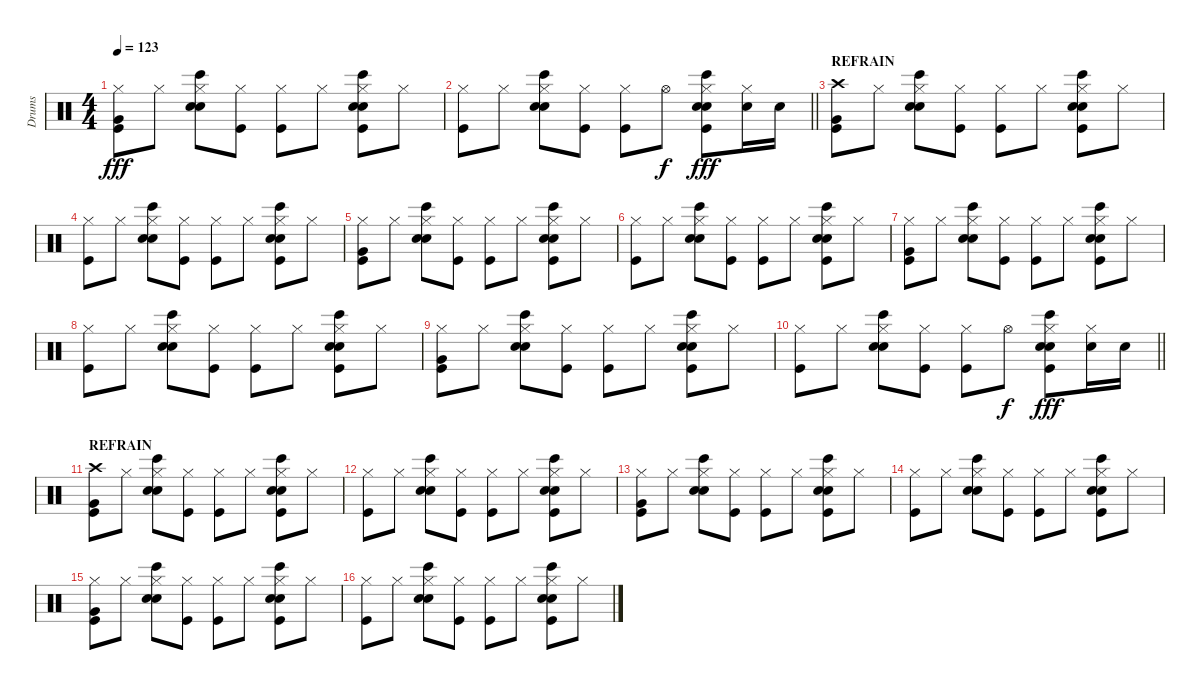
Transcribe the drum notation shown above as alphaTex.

\track ("Drums" "Drums") {instrument percussion}
\staff {score}
\articulation defaults
\ts (4 4)
\tempo 123
\clef neutral
\ks c
("Kick (hit)" "Hi-Hat (closed)" "Very Low Tom (hit)").8{dy fff} "Hi-Hat (closed)".8 ("Hi-Hat (closed)" "Bongo High (hit)" "Hand Clap (hit)" "Electric Snare (hit)").8 ("Kick (hit)" "Hi-Hat (closed)").8 ("Hi-Hat (closed)" "Kick (hit)").8 "Hi-Hat (closed)".8 ("Hi-Hat (closed)" "Kick (hit)" "Electric Snare (hit)" "Hand Clap (hit)" "Bongo High (hit)").8 "Hi-Hat (closed)".8 |
\barLineRight lightlight
("Hi-Hat (closed)" "Kick (hit)").8 "Hi-Hat (closed)".8 ("Hi-Hat (closed)" "Electric Snare (hit)" "Bongo High (hit)" "Hand Clap (hit)").8 ("Hi-Hat (closed)" "Kick (hit)").8 ("Hi-Hat (closed)" "Kick (hit)").8 "Hi-Hat (open)".8{dy f} ("Hi-Hat (closed)" "Bongo High (hit)" "Electric Snare (hit)" "Kick (hit)" "Hand Clap (hit)").8{dy fff} ("Electric Snare (hit)" "Hi-Hat (closed)").16 "Electric Snare (hit)".16 |
\section ("" "REFRAIN")
("Kick (hit)" "Crash high (hit)" "Very Low Tom (hit)").8 "Hi-Hat (closed)".8 ("Hi-Hat (closed)" "Bongo High (hit)" "Hand Clap (hit)" "Electric Snare (hit)").8 ("Kick (hit)" "Hi-Hat (closed)").8 ("Hi-Hat (closed)" "Kick (hit)").8 "Hi-Hat (closed)".8 ("Hi-Hat (closed)" "Kick (hit)" "Electric Snare (hit)" "Hand Clap (hit)" "Bongo High (hit)").8 "Hi-Hat (closed)".8 |
("Hi-Hat (closed)" "Kick (hit)").8 "Hi-Hat (closed)".8 ("Hi-Hat (closed)" "Electric Snare (hit)" "Bongo High (hit)" "Hand Clap (hit)").8 ("Hi-Hat (closed)" "Kick (hit)").8 ("Hi-Hat (closed)" "Kick (hit)").8 "Hi-Hat (closed)".8 ("Hi-Hat (closed)" "Kick (hit)" "Electric Snare (hit)" "Bongo High (hit)" "Hand Clap (hit)").8 "Hi-Hat (closed)".8 |
("Kick (hit)" "Hi-Hat (closed)" "Very Low Tom (hit)").8 "Hi-Hat (closed)".8 ("Hi-Hat (closed)" "Bongo High (hit)" "Hand Clap (hit)" "Electric Snare (hit)").8 ("Kick (hit)" "Hi-Hat (closed)").8 ("Hi-Hat (closed)" "Kick (hit)").8 "Hi-Hat (closed)".8 ("Hi-Hat (closed)" "Kick (hit)" "Electric Snare (hit)" "Hand Clap (hit)" "Bongo High (hit)").8 "Hi-Hat (closed)".8 |
("Hi-Hat (closed)" "Kick (hit)").8 "Hi-Hat (closed)".8 ("Hi-Hat (closed)" "Electric Snare (hit)" "Bongo High (hit)" "Hand Clap (hit)").8 ("Hi-Hat (closed)" "Kick (hit)").8 ("Hi-Hat (closed)" "Kick (hit)").8 "Hi-Hat (closed)".8 ("Hi-Hat (closed)" "Kick (hit)" "Electric Snare (hit)" "Bongo High (hit)" "Hand Clap (hit)").8 "Hi-Hat (closed)".8 |
("Kick (hit)" "Hi-Hat (closed)" "Very Low Tom (hit)").8 "Hi-Hat (closed)".8 ("Hi-Hat (closed)" "Bongo High (hit)" "Hand Clap (hit)" "Electric Snare (hit)").8 ("Kick (hit)" "Hi-Hat (closed)").8 ("Hi-Hat (closed)" "Kick (hit)").8 "Hi-Hat (closed)".8 ("Hi-Hat (closed)" "Kick (hit)" "Electric Snare (hit)" "Hand Clap (hit)" "Bongo High (hit)").8 "Hi-Hat (closed)".8 |
("Hi-Hat (closed)" "Kick (hit)").8 "Hi-Hat (closed)".8 ("Hi-Hat (closed)" "Electric Snare (hit)" "Bongo High (hit)" "Hand Clap (hit)").8 ("Hi-Hat (closed)" "Kick (hit)").8 ("Hi-Hat (closed)" "Kick (hit)").8 "Hi-Hat (closed)".8 ("Hi-Hat (closed)" "Kick (hit)" "Electric Snare (hit)" "Bongo High (hit)" "Hand Clap (hit)").8 "Hi-Hat (closed)".8 |
("Kick (hit)" "Hi-Hat (closed)" "Very Low Tom (hit)").8 "Hi-Hat (closed)".8 ("Hi-Hat (closed)" "Bongo High (hit)" "Hand Clap (hit)" "Electric Snare (hit)").8 ("Kick (hit)" "Hi-Hat (closed)").8 ("Hi-Hat (closed)" "Kick (hit)").8 "Hi-Hat (closed)".8 ("Hi-Hat (closed)" "Kick (hit)" "Electric Snare (hit)" "Hand Clap (hit)" "Bongo High (hit)").8 "Hi-Hat (closed)".8 |
\barLineRight lightlight
("Hi-Hat (closed)" "Kick (hit)").8 "Hi-Hat (closed)".8 ("Hi-Hat (closed)" "Electric Snare (hit)" "Bongo High (hit)" "Hand Clap (hit)").8 ("Hi-Hat (closed)" "Kick (hit)").8 ("Hi-Hat (closed)" "Kick (hit)").8 "Hi-Hat (open)".8{dy f} ("Hi-Hat (closed)" "Bongo High (hit)" "Electric Snare (hit)" "Kick (hit)" "Hand Clap (hit)").8{dy fff} ("Electric Snare (hit)" "Hi-Hat (closed)").16 "Electric Snare (hit)".16 |
\section ("" "REFRAIN")
("Kick (hit)" "Crash high (hit)" "Very Low Tom (hit)").8 "Hi-Hat (closed)".8 ("Hi-Hat (closed)" "Bongo High (hit)" "Hand Clap (hit)" "Electric Snare (hit)").8 ("Kick (hit)" "Hi-Hat (closed)").8 ("Hi-Hat (closed)" "Kick (hit)").8 "Hi-Hat (closed)".8 ("Hi-Hat (closed)" "Kick (hit)" "Electric Snare (hit)" "Hand Clap (hit)" "Bongo High (hit)").8 "Hi-Hat (closed)".8 |
("Hi-Hat (closed)" "Kick (hit)").8 "Hi-Hat (closed)".8 ("Hi-Hat (closed)" "Electric Snare (hit)" "Bongo High (hit)" "Hand Clap (hit)").8 ("Hi-Hat (closed)" "Kick (hit)").8 ("Hi-Hat (closed)" "Kick (hit)").8 "Hi-Hat (closed)".8 ("Hi-Hat (closed)" "Kick (hit)" "Electric Snare (hit)" "Bongo High (hit)" "Hand Clap (hit)").8 "Hi-Hat (closed)".8 |
("Kick (hit)" "Hi-Hat (closed)" "Very Low Tom (hit)").8 "Hi-Hat (closed)".8 ("Hi-Hat (closed)" "Bongo High (hit)" "Hand Clap (hit)" "Electric Snare (hit)").8 ("Kick (hit)" "Hi-Hat (closed)").8 ("Hi-Hat (closed)" "Kick (hit)").8 "Hi-Hat (closed)".8 ("Hi-Hat (closed)" "Kick (hit)" "Electric Snare (hit)" "Hand Clap (hit)" "Bongo High (hit)").8 "Hi-Hat (closed)".8 |
("Hi-Hat (closed)" "Kick (hit)").8 "Hi-Hat (closed)".8 ("Hi-Hat (closed)" "Electric Snare (hit)" "Bongo High (hit)" "Hand Clap (hit)").8 ("Hi-Hat (closed)" "Kick (hit)").8 ("Hi-Hat (closed)" "Kick (hit)").8 "Hi-Hat (closed)".8 ("Hi-Hat (closed)" "Kick (hit)" "Electric Snare (hit)" "Bongo High (hit)" "Hand Clap (hit)").8 "Hi-Hat (closed)".8 |
("Kick (hit)" "Hi-Hat (closed)" "Very Low Tom (hit)").8 "Hi-Hat (closed)".8 ("Hi-Hat (closed)" "Bongo High (hit)" "Hand Clap (hit)" "Electric Snare (hit)").8 ("Kick (hit)" "Hi-Hat (closed)").8 ("Hi-Hat (closed)" "Kick (hit)").8 "Hi-Hat (closed)".8 ("Hi-Hat (closed)" "Kick (hit)" "Electric Snare (hit)" "Hand Clap (hit)" "Bongo High (hit)").8 "Hi-Hat (closed)".8 |
("Hi-Hat (closed)" "Kick (hit)").8 "Hi-Hat (closed)".8 ("Hi-Hat (closed)" "Electric Snare (hit)" "Bongo High (hit)" "Hand Clap (hit)").8 ("Hi-Hat (closed)" "Kick (hit)").8 ("Hi-Hat (closed)" "Kick (hit)").8 "Hi-Hat (closed)".8 ("Hi-Hat (closed)" "Kick (hit)" "Electric Snare (hit)" "Bongo High (hit)" "Hand Clap (hit)").8 "Hi-Hat (closed)".8
